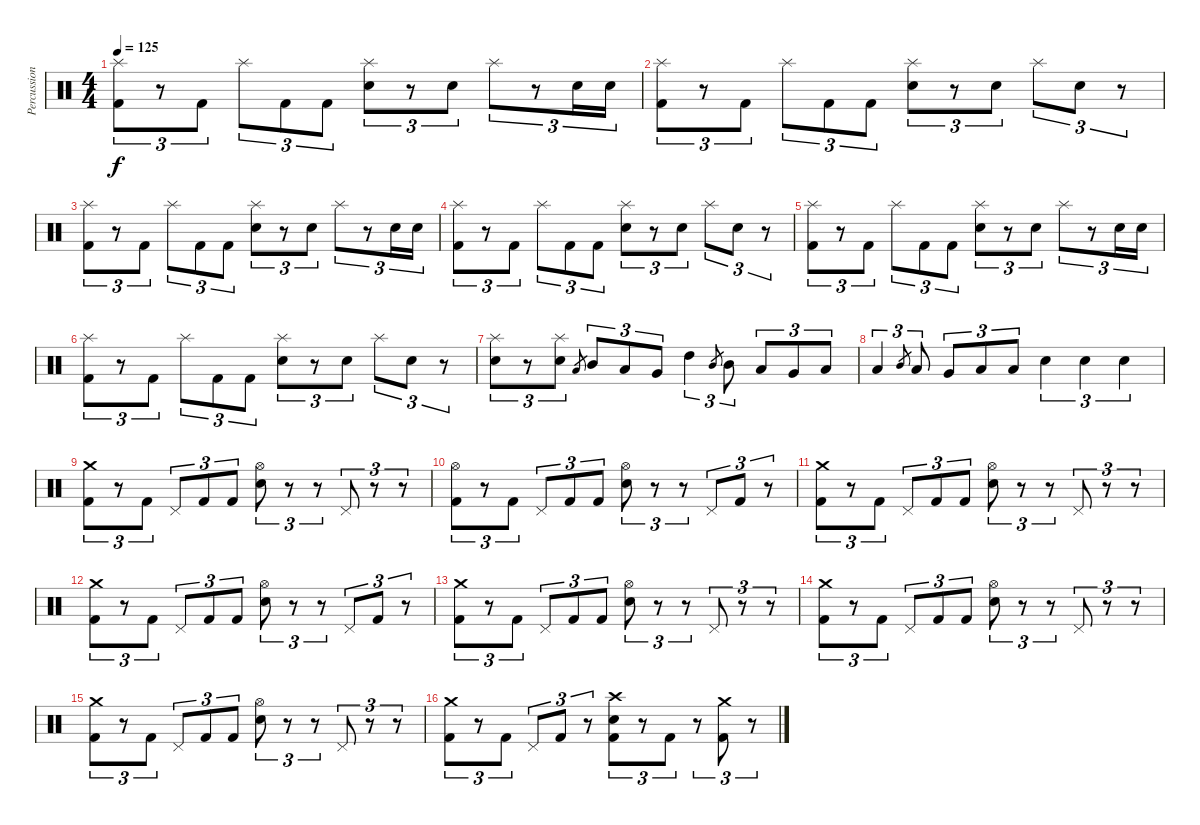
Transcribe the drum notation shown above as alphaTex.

\track ("Percussion" "Percussion") {instrument percussion}
\staff {score}
\articulation defaults
\ts (4 4)
\tempo 125
\clef neutral
\ks c
("Splash (hit)" "Kick (hit) 2").8{tu (3 2) dy f} r.8{tu (3 2)} "Kick (hit) 2".8{tu (3 2)} "Splash (hit)".8{tu (3 2)} "Kick (hit) 2".8{tu (3 2)} "Kick (hit) 2".8{tu (3 2)} ("Splash (hit)" "Electric Snare (hit)").8{tu (3 2)} r.8{tu (3 2)} "Electric Snare (hit)".8{tu (3 2)} "Splash (hit)".8{tu (3 2)} r.8{tu (3 2)} "Electric Snare (hit)".16{tu (3 2)} "Electric Snare (hit)".16{tu (3 2)} |
("Splash (hit)" "Kick (hit) 2").8{tu (3 2)} r.8{tu (3 2)} "Kick (hit) 2".8{tu (3 2)} "Splash (hit)".8{tu (3 2)} "Kick (hit) 2".8{tu (3 2)} "Kick (hit) 2".8{tu (3 2)} ("Splash (hit)" "Electric Snare (hit)").8{tu (3 2)} r.8{tu (3 2)} "Electric Snare (hit)".8{tu (3 2)} "Splash (hit)".8{tu (3 2)} "Electric Snare (hit)".8{tu (3 2)} r.8{tu (3 2)} |
("Splash (hit)" "Kick (hit) 2").8{tu (3 2)} r.8{tu (3 2)} "Kick (hit) 2".8{tu (3 2)} "Splash (hit)".8{tu (3 2)} "Kick (hit) 2".8{tu (3 2)} "Kick (hit) 2".8{tu (3 2)} ("Splash (hit)" "Electric Snare (hit)").8{tu (3 2)} r.8{tu (3 2)} "Electric Snare (hit)".8{tu (3 2)} "Splash (hit)".8{tu (3 2)} r.8{tu (3 2)} "Electric Snare (hit)".16{tu (3 2)} "Electric Snare (hit)".16{tu (3 2)} |
("Splash (hit)" "Kick (hit) 2").8{tu (3 2)} r.8{tu (3 2)} "Kick (hit) 2".8{tu (3 2)} "Splash (hit)".8{tu (3 2)} "Kick (hit) 2".8{tu (3 2)} "Kick (hit) 2".8{tu (3 2)} ("Splash (hit)" "Electric Snare (hit)").8{tu (3 2)} r.8{tu (3 2)} "Electric Snare (hit)".8{tu (3 2)} "Splash (hit)".8{tu (3 2)} "Electric Snare (hit)".8{tu (3 2)} r.8{tu (3 2)} |
("Splash (hit)" "Kick (hit) 2").8{tu (3 2)} r.8{tu (3 2)} "Kick (hit) 2".8{tu (3 2)} "Splash (hit)".8{tu (3 2)} "Kick (hit) 2".8{tu (3 2)} "Kick (hit) 2".8{tu (3 2)} ("Splash (hit)" "Electric Snare (hit)").8{tu (3 2)} r.8{tu (3 2)} "Electric Snare (hit)".8{tu (3 2)} "Splash (hit)".8{tu (3 2)} r.8{tu (3 2)} "Electric Snare (hit)".16{tu (3 2)} "Electric Snare (hit)".16{tu (3 2)} |
("Splash (hit)" "Kick (hit) 2").8{tu (3 2)} r.8{tu (3 2)} "Kick (hit) 2".8{tu (3 2)} "Splash (hit)".8{tu (3 2)} "Kick (hit) 2".8{tu (3 2)} "Kick (hit) 2".8{tu (3 2)} ("Splash (hit)" "Electric Snare (hit)").8{tu (3 2)} r.8{tu (3 2)} "Electric Snare (hit)".8{tu (3 2)} "Splash (hit)".8{tu (3 2)} "Electric Snare (hit)".8{tu (3 2)} r.8{tu (3 2)} |
("Splash (hit)" "Electric Snare (hit)").8{tu (3 2)} r.8{tu (3 2)} ("Splash (hit)" "Electric Snare (hit)").8{tu (3 2)} "Low Tom (hit)".8{gr} "Mid Tom (hit)".8{tu (3 2)} "Low Tom (hit)".8{tu (3 2)} "Very Low Tom (hit)".8{tu (3 2)} "High Tom (hit)".4{tu (3 2)} "Mid Tom (hit)".8{gr} "Mid Tom (hit)".8{tu (3 2)} "Low Tom (hit)".8{tu (3 2)} "Very Low Tom (hit)".8{tu (3 2)} "Low Floor Tom (hit)".8{tu (3 2)} |
"Low Tom (hit)".4{tu (3 2)} "Mid Tom (hit)".8{gr} "Low Tom (hit)".8{tu (3 2)} "Very Low Tom (hit)".8{tu (3 2)} "Low Floor Tom (hit)".8{tu (3 2)} "Low Floor Tom (hit)".8{tu (3 2)} "Electric Snare (hit)".4{tu (3 2)} "Electric Snare (hit)".4{tu (3 2)} "Electric Snare (hit)".4{tu (3 2)} |
("Crash medium (hit)" "Kick (hit) 2").8{tu (3 2)} r.8{tu (3 2)} "Kick (hit) 2".8{tu (3 2)} "Pedal Hi-Hat (hit)".8{tu (3 2)} "Kick (hit) 2".8{tu (3 2)} "Kick (hit) 2".8{tu (3 2)} ("Hi-Hat (open)" "Electric Snare (hit)").8{tu (3 2)} r.8{tu (3 2)} r.8{tu (3 2)} "Pedal Hi-Hat (hit)".8{tu (3 2)} r.8{tu (3 2)} r.8{tu (3 2)} |
("Hi-Hat (open)" "Kick (hit) 2").8{tu (3 2)} r.8{tu (3 2)} "Kick (hit) 2".8{tu (3 2)} "Pedal Hi-Hat (hit)".8{tu (3 2)} "Kick (hit) 2".8{tu (3 2)} "Kick (hit) 2".8{tu (3 2)} ("Hi-Hat (open)" "Electric Snare (hit)").8{tu (3 2)} r.8{tu (3 2)} r.8{tu (3 2)} "Pedal Hi-Hat (hit)".8{tu (3 2)} "Kick (hit) 2".8{tu (3 2)} r.8{tu (3 2)} |
("Crash medium (hit)" "Kick (hit) 2").8{tu (3 2)} r.8{tu (3 2)} "Kick (hit) 2".8{tu (3 2)} "Pedal Hi-Hat (hit)".8{tu (3 2)} "Kick (hit) 2".8{tu (3 2)} "Kick (hit) 2".8{tu (3 2)} ("Hi-Hat (open)" "Electric Snare (hit)").8{tu (3 2)} r.8{tu (3 2)} r.8{tu (3 2)} "Pedal Hi-Hat (hit)".8{tu (3 2)} r.8{tu (3 2)} r.8{tu (3 2)} |
("Crash medium (hit)" "Kick (hit) 2").8{tu (3 2)} r.8{tu (3 2)} "Kick (hit) 2".8{tu (3 2)} "Pedal Hi-Hat (hit)".8{tu (3 2)} "Kick (hit) 2".8{tu (3 2)} "Kick (hit) 2".8{tu (3 2)} ("Hi-Hat (open)" "Electric Snare (hit)").8{tu (3 2)} r.8{tu (3 2)} r.8{tu (3 2)} "Pedal Hi-Hat (hit)".8{tu (3 2)} "Kick (hit) 2".8{tu (3 2)} r.8{tu (3 2)} |
("Crash medium (hit)" "Kick (hit) 2").8{tu (3 2)} r.8{tu (3 2)} "Kick (hit) 2".8{tu (3 2)} "Pedal Hi-Hat (hit)".8{tu (3 2)} "Kick (hit) 2".8{tu (3 2)} "Kick (hit) 2".8{tu (3 2)} ("Hi-Hat (open)" "Electric Snare (hit)").8{tu (3 2)} r.8{tu (3 2)} r.8{tu (3 2)} "Pedal Hi-Hat (hit)".8{tu (3 2)} r.8{tu (3 2)} r.8{tu (3 2)} |
("Crash medium (hit)" "Kick (hit) 2").8{tu (3 2)} r.8{tu (3 2)} "Kick (hit) 2".8{tu (3 2)} "Pedal Hi-Hat (hit)".8{tu (3 2)} "Kick (hit) 2".8{tu (3 2)} "Kick (hit) 2".8{tu (3 2)} ("Hi-Hat (open)" "Electric Snare (hit)").8{tu (3 2)} r.8{tu (3 2)} r.8{tu (3 2)} "Pedal Hi-Hat (hit)".8{tu (3 2)} r.8{tu (3 2)} r.8{tu (3 2)} |
("Crash medium (hit)" "Kick (hit) 2").8{tu (3 2)} r.8{tu (3 2)} "Kick (hit) 2".8{tu (3 2)} "Pedal Hi-Hat (hit)".8{tu (3 2)} "Kick (hit) 2".8{tu (3 2)} "Kick (hit) 2".8{tu (3 2)} ("Hi-Hat (open)" "Electric Snare (hit)").8{tu (3 2)} r.8{tu (3 2)} r.8{tu (3 2)} "Pedal Hi-Hat (hit)".8{tu (3 2)} r.8{tu (3 2)} r.8{tu (3 2)} |
("Crash medium (hit)" "Kick (hit) 2").8{tu (3 2)} r.8{tu (3 2)} "Kick (hit) 2".8{tu (3 2)} "Pedal Hi-Hat (hit)".8{tu (3 2)} "Kick (hit) 2".8{tu (3 2)} r.8{tu (3 2)} ("Crash high (hit)" "Electric Snare (hit)" "Kick (hit) 2").8{tu (3 2)} r.8{tu (3 2)} "Kick (hit) 2".8{tu (3 2)} r.8{tu (3 2)} ("Crash medium (hit)" "Kick (hit) 2").8{tu (3 2)} r.8{tu (3 2)}
